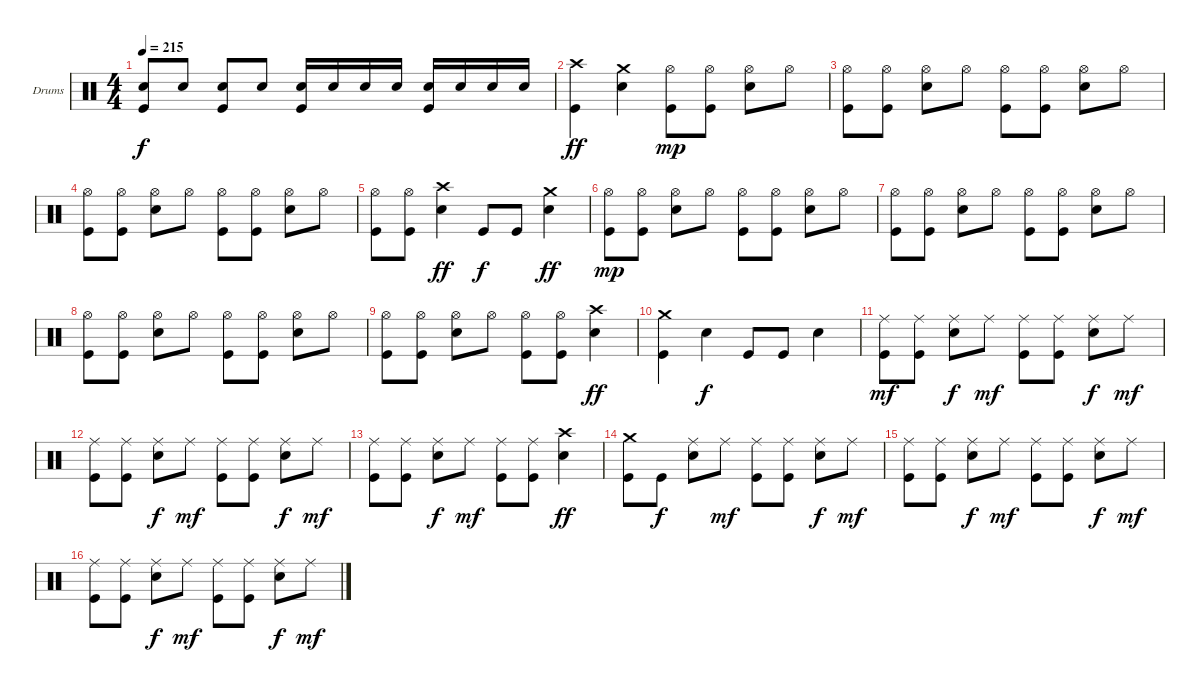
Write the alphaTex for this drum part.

\bracketExtendMode groupsimilarinstruments
\firstSystemTrackNameOrientation horizontal
\otherSystemsTrackNameOrientation horizontal
\track ("Drumkit" "Drums") {instrument percussion}
\staff {score}
\articulation defaults
\ts (4 4)
\tempo 215
\clef neutral
\ks c
("Snare (hit) 2" "Kick (hit)").8{dy f} "Snare (hit) 2".8 ("Snare (hit) 2" "Kick (hit)").8 "Snare (hit) 2".8 ("Snare (hit) 2" "Kick (hit)").16 "Snare (hit) 2".16 "Snare (hit) 2".16 "Snare (hit) 2".16 ("Snare (hit) 2" "Kick (hit)").16 "Snare (hit) 2".16 "Snare (hit) 2".16 "Snare (hit) 2".16 |
("Crash high (hit)" "Kick (hit)").4{dy ff} ("Crash medium (hit)" "Snare (hit) 2").4 ("Hi-Hat (open)" "Kick (hit)").8{dy mp} ("Hi-Hat (open)" "Kick (hit)").8 ("Hi-Hat (open)" "Snare (hit) 2").8 "Hi-Hat (open)".8 |
("Hi-Hat (open)" "Kick (hit)").8 ("Hi-Hat (open)" "Kick (hit)").8 ("Hi-Hat (open)" "Snare (hit) 2").8 "Hi-Hat (open)".8 ("Hi-Hat (open)" "Kick (hit)").8 ("Hi-Hat (open)" "Kick (hit)").8 ("Hi-Hat (open)" "Snare (hit) 2").8 "Hi-Hat (open)".8 |
("Hi-Hat (open)" "Kick (hit)").8 ("Hi-Hat (open)" "Kick (hit)").8 ("Hi-Hat (open)" "Snare (hit) 2").8 "Hi-Hat (open)".8 ("Hi-Hat (open)" "Kick (hit)").8 ("Hi-Hat (open)" "Kick (hit)").8 ("Hi-Hat (open)" "Snare (hit) 2").8 "Hi-Hat (open)".8 |
("Hi-Hat (open)" "Kick (hit)").8 ("Hi-Hat (open)" "Kick (hit)").8 ("Crash high (hit)" "Snare (hit) 2").4{dy ff} "Kick (hit)".8{dy f} "Kick (hit)".8 ("Crash medium (hit)" "Snare (hit) 2").4{dy ff} |
("Hi-Hat (open)" "Kick (hit)").8{dy mp} ("Hi-Hat (open)" "Kick (hit)").8 ("Hi-Hat (open)" "Snare (hit) 2").8 "Hi-Hat (open)".8 ("Hi-Hat (open)" "Kick (hit)").8 ("Hi-Hat (open)" "Kick (hit)").8 ("Hi-Hat (open)" "Snare (hit) 2").8 "Hi-Hat (open)".8 |
("Hi-Hat (open)" "Kick (hit)").8 ("Hi-Hat (open)" "Kick (hit)").8 ("Hi-Hat (open)" "Snare (hit) 2").8 "Hi-Hat (open)".8 ("Hi-Hat (open)" "Kick (hit)").8 ("Hi-Hat (open)" "Kick (hit)").8 ("Hi-Hat (open)" "Snare (hit) 2").8 "Hi-Hat (open)".8 |
("Hi-Hat (open)" "Kick (hit)").8 ("Hi-Hat (open)" "Kick (hit)").8 ("Hi-Hat (open)" "Snare (hit) 2").8 "Hi-Hat (open)".8 ("Hi-Hat (open)" "Kick (hit)").8 ("Hi-Hat (open)" "Kick (hit)").8 ("Hi-Hat (open)" "Snare (hit) 2").8 "Hi-Hat (open)".8 |
("Hi-Hat (open)" "Kick (hit)").8 ("Hi-Hat (open)" "Kick (hit)").8 ("Hi-Hat (open)" "Snare (hit) 2").8 "Hi-Hat (open)".8 ("Hi-Hat (open)" "Kick (hit)").8 ("Hi-Hat (open)" "Kick (hit)").8 ("Crash high (hit)" "Snare (hit) 2").4{dy ff} |
("Crash medium (hit)" "Kick (hit)").4 "Snare (hit) 2".4{dy f} "Kick (hit)".8 "Kick (hit)".8 "Snare (hit) 2".4 |
("Ride (middle)" "Kick (hit)").8{dy mf} ("Ride (middle)" "Kick (hit)").8 ("Ride (middle)" "Snare (hit) 2").8{dy f} "Ride (middle)".8{dy mf} ("Ride (middle)" "Kick (hit)").8 ("Ride (middle)" "Kick (hit)").8 ("Ride (middle)" "Snare (hit) 2").8{dy f} "Ride (middle)".8{dy mf} |
("Ride (middle)" "Kick (hit)").8 ("Ride (middle)" "Kick (hit)").8 ("Ride (middle)" "Snare (hit) 2").8{dy f} "Ride (middle)".8{dy mf} ("Ride (middle)" "Kick (hit)").8 ("Ride (middle)" "Kick (hit)").8 ("Ride (middle)" "Snare (hit) 2").8{dy f} "Ride (middle)".8{dy mf} |
("Ride (middle)" "Kick (hit)").8 ("Ride (middle)" "Kick (hit)").8 ("Ride (middle)" "Snare (hit) 2").8{dy f} "Ride (middle)".8{dy mf} ("Ride (middle)" "Kick (hit)").8 ("Ride (middle)" "Kick (hit)").8 ("Crash high (hit)" "Snare (hit) 2").4{dy ff} |
("Crash medium (hit)" "Kick (hit)").8 "Kick (hit)".8{dy f} ("Ride (middle)" "Snare (hit) 2").8 "Ride (middle)".8{dy mf} ("Ride (middle)" "Kick (hit)").8 ("Ride (middle)" "Kick (hit)").8 ("Ride (middle)" "Snare (hit) 2").8{dy f} "Ride (middle)".8{dy mf} |
("Ride (middle)" "Kick (hit)").8 ("Ride (middle)" "Kick (hit)").8 ("Ride (middle)" "Snare (hit) 2").8{dy f} "Ride (middle)".8{dy mf} ("Ride (middle)" "Kick (hit)").8 ("Ride (middle)" "Kick (hit)").8 ("Ride (middle)" "Snare (hit) 2").8{dy f} "Ride (middle)".8{dy mf} |
("Ride (middle)" "Kick (hit)").8 ("Ride (middle)" "Kick (hit)").8 ("Ride (middle)" "Snare (hit) 2").8{dy f} "Ride (middle)".8{dy mf} ("Ride (middle)" "Kick (hit)").8 ("Ride (middle)" "Kick (hit)").8 ("Ride (middle)" "Snare (hit) 2").8{dy f} "Ride (middle)".8{dy mf}
